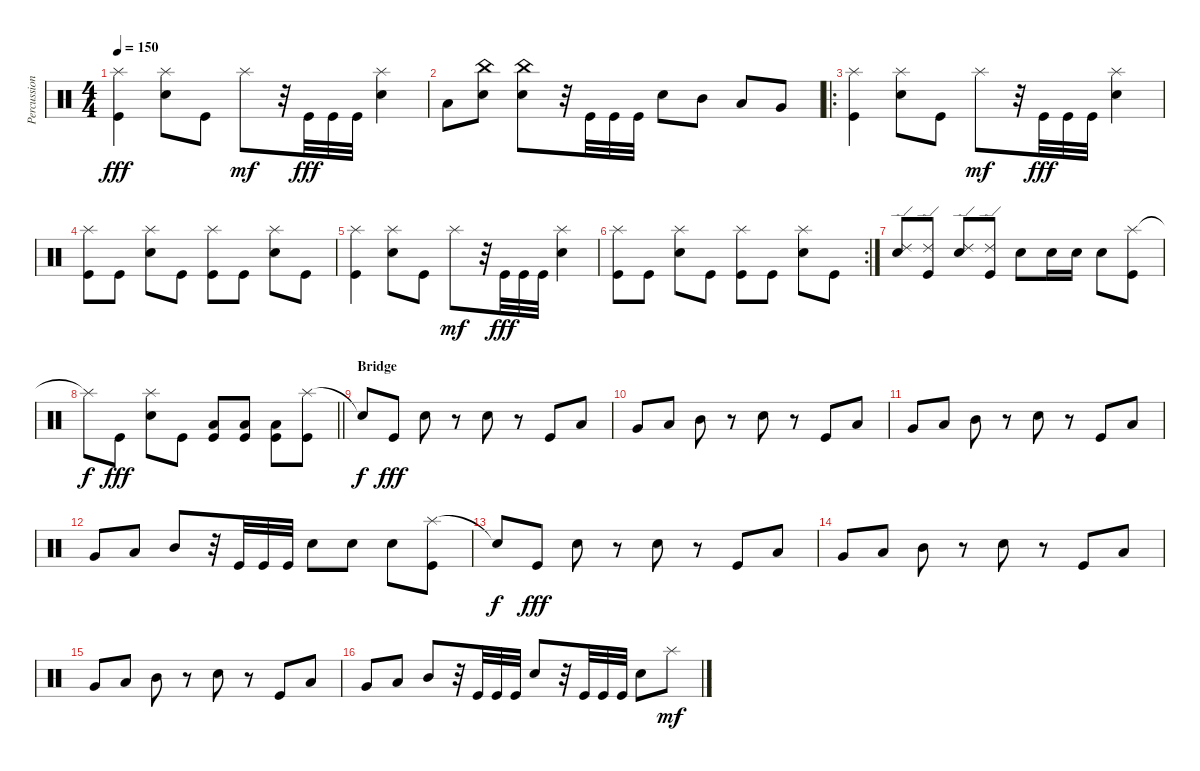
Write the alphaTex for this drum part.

\track ("Percussion" "Percussion") {instrument percussion}
\staff {score}
\articulation defaults
\ts (4 4)
\tempo 150
\clef neutral
\ks c
("Splash (hit)" "Kick (hit)").4{dy fff} ("Splash (hit)" "Electric Snare (hit)").8 "Kick (hit)".8 "Splash (hit)".8{dy mf} r.32 "Kick (hit)".32{dy fff} "Kick (hit)".32 "Kick (hit)".32 ("Splash (hit)" "Electric Snare (hit)").4 |
"Low Floor Tom (hit)".8 ("China (hit)" "Electric Snare (hit)").8 ("China (hit)" "Electric Snare (hit)").8 r.32 "Kick (hit)".32 "Kick (hit)".32 "Kick (hit)".32 "Electric Snare (hit)".8 "Mid Tom (hit)".8 "Low Tom (hit)".8 "Very Low Tom (hit)".8 |
\ro
("Splash (hit)" "Kick (hit)").4 ("Splash (hit)" "Electric Snare (hit)").8 "Kick (hit)".8 "Splash (hit)".8{dy mf} r.32 "Kick (hit)".32{dy fff} "Kick (hit)".32 "Kick (hit)".32 ("Splash (hit)" "Electric Snare (hit)").4 |
("Splash (hit)" "Kick (hit)").8 "Kick (hit)".8 ("Splash (hit)" "Electric Snare (hit)").8 "Kick (hit)".8 ("Splash (hit)" "Kick (hit)").8 "Kick (hit)".8 ("Splash (hit)" "Electric Snare (hit)").8 "Kick (hit)".8 |
("Splash (hit)" "Kick (hit)").4 ("Splash (hit)" "Electric Snare (hit)").8 "Kick (hit)".8 "Splash (hit)".8{dy mf} r.32 "Kick (hit)".32{dy fff} "Kick (hit)".32 "Kick (hit)".32 ("Splash (hit)" "Electric Snare (hit)").4 |
\rc 2
("Splash (hit)" "Kick (hit)").8 "Kick (hit)".8 ("Splash (hit)" "Electric Snare (hit)").8 "Kick (hit)".8 ("Splash (hit)" "Kick (hit)").8 "Kick (hit)".8 ("Splash (hit)" "Electric Snare (hit)").8 "Kick (hit)".8 |
("Ride (edge) 2" "Electric Snare (hit)").8 ("Ride (edge) 2" "Kick (hit)").8 ("Ride (edge) 2" "Electric Snare (hit)").8 ("Ride (edge) 2" "Kick (hit)").8 "Electric Snare (hit)".8 "Electric Snare (hit)".16 "Electric Snare (hit)".16 "Electric Snare (hit)".8 ("Splash (hit)" "Kick (hit)").8 |
\barLineRight lightlight "Splash (hit)"{t}.8{dy f} "Kick (hit)".8{dy fff}
("Splash (hit)" "Electric Snare (hit)").8 "Kick (hit)".8 ("Low Floor Tom (hit)" "Kick (hit)").8 ("Low Floor Tom (hit)" "Kick (hit)").8 ("Low Floor Tom (hit)" "Kick (hit)").8 ("Splash (hit)" "Kick (hit)").8 |
\section ("" "Bridge")
"Snare (hit)"{t}.8{dy f} "Kick (hit)".8{dy fff} "Electric Snare (hit)".8 r.8 "Electric Snare (hit)".8 r.8 "Kick (hit)".8 "Low Floor Tom (hit)".8 |
"Very Low Tom (hit)".8 "Low Tom (hit)".8 "Mid Tom (hit)".8 r.8 "Electric Snare (hit)".8 r.8 "Kick (hit)".8 "Low Floor Tom (hit)".8 |
"Very Low Tom (hit)".8 "Low Tom (hit)".8 "Mid Tom (hit)".8 r.8 "Electric Snare (hit)".8 r.8 "Kick (hit)".8 "Low Floor Tom (hit)".8 |
"Very Low Tom (hit)".8 "Low Tom (hit)".8 "Mid Tom (hit)".8 r.32 "Kick (hit)".32 "Kick (hit)".32 "Kick (hit)".32 "Electric Snare (hit)".8 "Electric Snare (hit)".8 "Electric Snare (hit)".8 ("Splash (hit)" "Kick (hit)").8 |
"Snare (hit)"{t}.8{dy f} "Kick (hit)".8{dy fff} "Electric Snare (hit)".8 r.8 "Electric Snare (hit)".8 r.8 "Kick (hit)".8 "Low Floor Tom (hit)".8 |
"Very Low Tom (hit)".8 "Low Tom (hit)".8 "Mid Tom (hit)".8 r.8 "Electric Snare (hit)".8 r.8 "Kick (hit)".8 "Low Floor Tom (hit)".8 |
"Very Low Tom (hit)".8 "Low Tom (hit)".8 "Mid Tom (hit)".8 r.8 "Electric Snare (hit)".8 r.8 "Kick (hit)".8 "Low Floor Tom (hit)".8 |
"Very Low Tom (hit)".8 "Low Tom (hit)".8 "Mid Tom (hit)".8 r.32 "Kick (hit)".32 "Kick (hit)".32 "Kick (hit)".32 "Electric Snare (hit)".8 r.32 "Kick (hit)".32 "Kick (hit)".32 "Kick (hit)".32 "Electric Snare (hit)".8 "Splash (hit)".8{dy mf}
